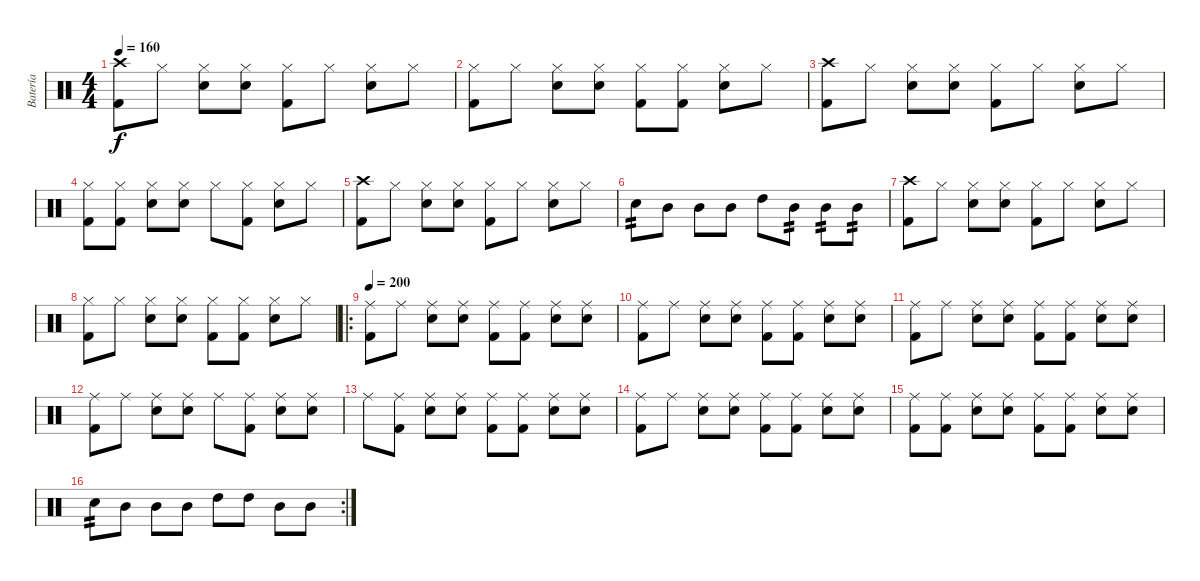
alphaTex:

\track ("Batería" "Batería") {instrument percussion}
\staff {score}
\articulation defaults
\ts (4 4)
\tempo 160
\clef neutral
\ks c
("Crash high (hit)" "Kick (hit) 2").8{dy f} "Hi-Hat (closed)".8 ("Hi-Hat (closed)" "Electric Snare (hit)").8 ("Hi-Hat (closed)" "Electric Snare (hit)").8 ("Hi-Hat (closed)" "Kick (hit) 2").8 "Hi-Hat (closed)".8 ("Hi-Hat (closed)" "Electric Snare (hit)").8 "Hi-Hat (closed)".8 |
("Hi-Hat (closed)" "Kick (hit) 2").8 "Hi-Hat (closed)".8 ("Hi-Hat (closed)" "Electric Snare (hit)").8 ("Hi-Hat (closed)" "Electric Snare (hit)").8 ("Hi-Hat (closed)" "Kick (hit) 2").8 ("Hi-Hat (closed)" "Kick (hit) 2").8 ("Hi-Hat (closed)" "Electric Snare (hit)").8 "Hi-Hat (closed)".8 |
("Crash high (hit)" "Kick (hit) 2").8 "Hi-Hat (closed)".8 ("Hi-Hat (closed)" "Electric Snare (hit)").8 ("Hi-Hat (closed)" "Electric Snare (hit)").8 ("Hi-Hat (closed)" "Kick (hit) 2").8 "Hi-Hat (closed)".8 ("Hi-Hat (closed)" "Electric Snare (hit)").8 "Hi-Hat (closed)".8 |
("Hi-Hat (closed)" "Kick (hit) 2").8 ("Hi-Hat (closed)" "Kick (hit) 2").8 ("Hi-Hat (closed)" "Electric Snare (hit)").8 ("Hi-Hat (closed)" "Electric Snare (hit)").8 "Hi-Hat (closed)".8 ("Hi-Hat (closed)" "Kick (hit) 2").8 ("Hi-Hat (closed)" "Electric Snare (hit)").8 "Hi-Hat (closed)".8 |
("Crash high (hit)" "Kick (hit) 2").8 "Hi-Hat (closed)".8 ("Hi-Hat (closed)" "Electric Snare (hit)").8 ("Hi-Hat (closed)" "Electric Snare (hit)").8 ("Hi-Hat (closed)" "Kick (hit) 2").8 "Hi-Hat (closed)".8 ("Hi-Hat (closed)" "Electric Snare (hit)").8 "Hi-Hat (closed)".8 |
"Electric Snare (hit)".8{tp 2} "Mid Tom (hit)".8 "Mid Tom (hit)".8 "Mid Tom (hit)".8 "High Tom (hit)".8 "Mid Tom (hit)".8{tp 2} "Mid Tom (hit)".8{tp 2} "Mid Tom (hit)".8{tp 2} |
("Crash high (hit)" "Kick (hit) 2").8 "Hi-Hat (closed)".8 ("Hi-Hat (closed)" "Electric Snare (hit)").8 ("Hi-Hat (closed)" "Electric Snare (hit)").8 ("Hi-Hat (closed)" "Kick (hit) 2").8 "Hi-Hat (closed)".8 ("Hi-Hat (closed)" "Electric Snare (hit)").8 "Hi-Hat (closed)".8 |
("Hi-Hat (closed)" "Kick (hit) 2").8 "Hi-Hat (closed)".8 ("Hi-Hat (closed)" "Electric Snare (hit)").8 ("Hi-Hat (closed)" "Electric Snare (hit)").8 ("Hi-Hat (closed)" "Kick (hit) 2").8 ("Hi-Hat (closed)" "Kick (hit) 2").8 ("Hi-Hat (closed)" "Electric Snare (hit)").8 "Hi-Hat (closed)".8 |
\ro
\tempo 200
("Ride (middle)" "Kick (hit) 2").8 "Ride (middle)".8 ("Ride (middle)" "Electric Snare (hit)").8 ("Ride (middle)" "Electric Snare (hit)").8 ("Ride (middle)" "Kick (hit) 2").8 ("Ride (middle)" "Kick (hit) 2").8 ("Ride (middle)" "Electric Snare (hit)").8 ("Ride (middle)" "Electric Snare (hit)").8 |
("Ride (middle)" "Kick (hit) 2").8 "Ride (middle)".8 ("Ride (middle)" "Electric Snare (hit)").8 ("Ride (middle)" "Electric Snare (hit)").8 ("Ride (middle)" "Kick (hit) 2").8 ("Ride (middle)" "Kick (hit) 2").8 ("Ride (middle)" "Electric Snare (hit)").8 ("Ride (middle)" "Electric Snare (hit)").8 |
("Ride (middle)" "Kick (hit) 2").8 "Ride (middle)".8 ("Ride (middle)" "Electric Snare (hit)").8 ("Ride (middle)" "Electric Snare (hit)").8 ("Ride (middle)" "Kick (hit) 2").8 ("Ride (middle)" "Kick (hit) 2").8 ("Ride (middle)" "Electric Snare (hit)").8 ("Ride (middle)" "Electric Snare (hit)").8 |
("Ride (middle)" "Kick (hit) 2").8 "Ride (middle)".8 ("Ride (middle)" "Electric Snare (hit)").8 ("Ride (middle)" "Electric Snare (hit)").8 "Ride (middle)".8 ("Ride (middle)" "Kick (hit) 2").8 ("Ride (middle)" "Electric Snare (hit)").8 ("Ride (middle)" "Electric Snare (hit)").8 |
"Ride (middle)".8 ("Ride (middle)" "Kick (hit) 2").8 ("Ride (middle)" "Electric Snare (hit)").8 ("Ride (middle)" "Electric Snare (hit)").8 ("Ride (middle)" "Kick (hit) 2").8 ("Ride (middle)" "Kick (hit) 2").8 ("Ride (middle)" "Electric Snare (hit)").8 ("Ride (middle)" "Electric Snare (hit)").8 |
("Ride (middle)" "Kick (hit) 2").8 "Ride (middle)".8 ("Ride (middle)" "Electric Snare (hit)").8 ("Ride (middle)" "Electric Snare (hit)").8 ("Ride (middle)" "Kick (hit) 2").8 ("Ride (middle)" "Kick (hit) 2").8 ("Ride (middle)" "Electric Snare (hit)").8 ("Ride (middle)" "Electric Snare (hit)").8 |
("Ride (middle)" "Kick (hit) 2").8 ("Ride (middle)" "Kick (hit) 2").8 ("Ride (middle)" "Electric Snare (hit)").8 ("Ride (middle)" "Electric Snare (hit)").8 ("Ride (middle)" "Kick (hit) 2").8 ("Ride (middle)" "Kick (hit) 2").8 ("Ride (middle)" "Electric Snare (hit)").8 ("Ride (middle)" "Electric Snare (hit)").8 |
\rc 2 "Electric Snare (hit)".8{tp 2} "Mid Tom (hit)".8 "Mid Tom (hit)".8 "Mid Tom (hit)".8 "High Tom (hit)".8 "High Tom (hit)".8 "Mid Tom (hit)".8 "Mid Tom (hit)".8
